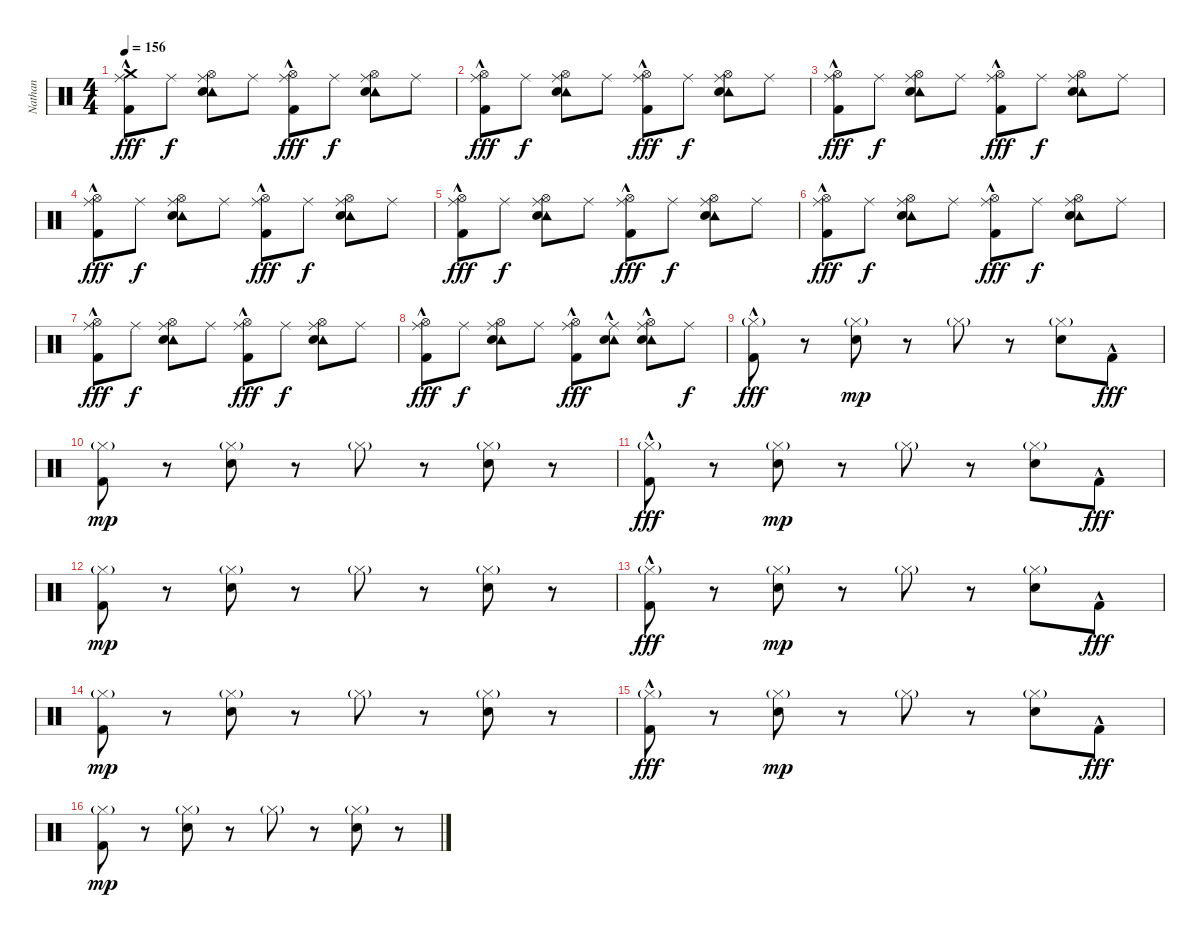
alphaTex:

\track ("Nathan" "Nathan") {instrument percussion}
\staff {score}
\articulation defaults
\ts (4 4)
\tempo 156
\clef neutral
\ks c
("Crash medium (hit)" "Ride (middle)" "Kick (hit) 2"{hac}).8{dy fff} "Ride (middle)".8{dy f} ("Hi-Hat (open)" "Ride (middle)" "Tambourine (hit)" "Snare (hit) 2").8 "Ride (middle)".8 ("Hi-Hat (open)" "Ride (middle)" "Kick (hit) 2"{hac}).8{dy fff} "Ride (middle)".8{dy f} ("Hi-Hat (open)" "Ride (middle)" "Tambourine (hit)" "Snare (hit) 2").8 "Ride (middle)".8 |
("Hi-Hat (open)" "Ride (middle)" "Kick (hit) 2"{hac}).8{dy fff} "Ride (middle)".8{dy f} ("Hi-Hat (open)" "Ride (middle)" "Tambourine (hit)" "Snare (hit) 2").8 "Ride (middle)".8 ("Hi-Hat (open)" "Ride (middle)" "Kick (hit) 2"{hac}).8{dy fff} "Ride (middle)".8{dy f} ("Hi-Hat (open)" "Ride (middle)" "Tambourine (hit)" "Snare (hit) 2").8 "Ride (middle)".8 |
("Hi-Hat (open)" "Ride (middle)" "Kick (hit) 2"{hac}).8{dy fff} "Ride (middle)".8{dy f} ("Hi-Hat (open)" "Ride (middle)" "Tambourine (hit)" "Snare (hit) 2").8 "Ride (middle)".8 ("Hi-Hat (open)" "Ride (middle)" "Kick (hit) 2"{hac}).8{dy fff} "Ride (middle)".8{dy f} ("Hi-Hat (open)" "Ride (middle)" "Tambourine (hit)" "Snare (hit) 2").8 "Ride (middle)".8 |
("Hi-Hat (open)" "Ride (middle)" "Kick (hit) 2"{hac}).8{dy fff} "Ride (middle)".8{dy f} ("Hi-Hat (open)" "Ride (middle)" "Tambourine (hit)" "Snare (hit) 2").8 "Ride (middle)".8 ("Hi-Hat (open)" "Ride (middle)" "Kick (hit) 2"{hac}).8{dy fff} "Ride (middle)".8{dy f} ("Hi-Hat (open)" "Ride (middle)" "Tambourine (hit)" "Snare (hit) 2").8 "Ride (middle)".8 |
("Hi-Hat (open)" "Ride (middle)" "Kick (hit) 2"{hac}).8{dy fff} "Ride (middle)".8{dy f} ("Hi-Hat (open)" "Ride (middle)" "Tambourine (hit)" "Snare (hit) 2").8 "Ride (middle)".8 ("Hi-Hat (open)" "Ride (middle)" "Kick (hit) 2"{hac}).8{dy fff} "Ride (middle)".8{dy f} ("Hi-Hat (open)" "Ride (middle)" "Tambourine (hit)" "Snare (hit) 2").8 "Ride (middle)".8 |
("Hi-Hat (open)" "Ride (middle)" "Kick (hit) 2"{hac}).8{dy fff} "Ride (middle)".8{dy f} ("Hi-Hat (open)" "Ride (middle)" "Tambourine (hit)" "Snare (hit) 2").8 "Ride (middle)".8 ("Hi-Hat (open)" "Ride (middle)" "Kick (hit) 2"{hac}).8{dy fff} "Ride (middle)".8{dy f} ("Hi-Hat (open)" "Ride (middle)" "Tambourine (hit)" "Snare (hit) 2").8 "Ride (middle)".8 |
("Hi-Hat (open)" "Ride (middle)" "Kick (hit) 2"{hac}).8{dy fff} "Ride (middle)".8{dy f} ("Hi-Hat (open)" "Ride (middle)" "Tambourine (hit)" "Snare (hit) 2").8 "Ride (middle)".8 ("Hi-Hat (open)" "Ride (middle)" "Kick (hit) 2"{hac}).8{dy fff} "Ride (middle)".8{dy f} ("Hi-Hat (open)" "Ride (middle)" "Tambourine (hit)" "Snare (hit) 2").8 "Ride (middle)".8 |
("Hi-Hat (open)" "Ride (middle)" "Kick (hit) 2"{hac}).8{dy fff} "Ride (middle)".8{dy f} ("Hi-Hat (open)" "Ride (middle)" "Tambourine (hit)" "Snare (hit) 2").8 "Ride (middle)".8 ("Hi-Hat (open)" "Ride (middle)" "Kick (hit) 2"{hac}).8{dy fff} ("Ride (middle)" "Tambourine (hit)" "Snare (hit) 2"{hac}).8 ("Hi-Hat (open)" "Ride (middle)" "Tambourine (hit)" "Snare (hit) 2"{hac}).8 "Ride (middle)".8{dy f} |
("Hi-Hat (closed)"{g} "Kick (hit) 2"{hac}).8{dy fff} r.8 ("Hi-Hat (closed)"{g} "Snare (hit) 2").8{dy mp} r.8 "Hi-Hat (closed)"{g}.8 r.8 ("Hi-Hat (closed)"{g} "Snare (hit) 2").8 "Kick (hit) 2"{hac}.8{dy fff} |
("Hi-Hat (closed)"{g} "Kick (hit) 2").8{dy mp} r.8 ("Hi-Hat (closed)"{g} "Snare (hit) 2").8 r.8 "Hi-Hat (closed)"{g}.8 r.8 ("Hi-Hat (closed)"{g} "Snare (hit) 2").8 r.8 |
("Hi-Hat (closed)"{g} "Kick (hit) 2"{hac}).8{dy fff} r.8 ("Hi-Hat (closed)"{g} "Snare (hit) 2").8{dy mp} r.8 "Hi-Hat (closed)"{g}.8 r.8 ("Hi-Hat (closed)"{g} "Snare (hit) 2").8 "Kick (hit) 2"{hac}.8{dy fff} |
("Hi-Hat (closed)"{g} "Kick (hit) 2").8{dy mp} r.8 ("Hi-Hat (closed)"{g} "Snare (hit) 2").8 r.8 "Hi-Hat (closed)"{g}.8 r.8 ("Hi-Hat (closed)"{g} "Snare (hit) 2").8 r.8 |
("Hi-Hat (closed)"{g} "Kick (hit) 2"{hac}).8{dy fff} r.8 ("Hi-Hat (closed)"{g} "Snare (hit) 2").8{dy mp} r.8 "Hi-Hat (closed)"{g}.8 r.8 ("Hi-Hat (closed)"{g} "Snare (hit) 2").8 "Kick (hit) 2"{hac}.8{dy fff} |
("Hi-Hat (closed)"{g} "Kick (hit) 2").8{dy mp} r.8 ("Hi-Hat (closed)"{g} "Snare (hit) 2").8 r.8 "Hi-Hat (closed)"{g}.8 r.8 ("Hi-Hat (closed)"{g} "Snare (hit) 2").8 r.8 |
("Hi-Hat (closed)"{g} "Kick (hit) 2"{hac}).8{dy fff} r.8 ("Hi-Hat (closed)"{g} "Snare (hit) 2").8{dy mp} r.8 "Hi-Hat (closed)"{g}.8 r.8 ("Hi-Hat (closed)"{g} "Snare (hit) 2").8 "Kick (hit) 2"{hac}.8{dy fff} |
("Hi-Hat (closed)"{g} "Kick (hit) 2").8{dy mp} r.8 ("Hi-Hat (closed)"{g} "Snare (hit) 2").8 r.8 "Hi-Hat (closed)"{g}.8 r.8 ("Hi-Hat (closed)"{g} "Snare (hit) 2").8 r.8
